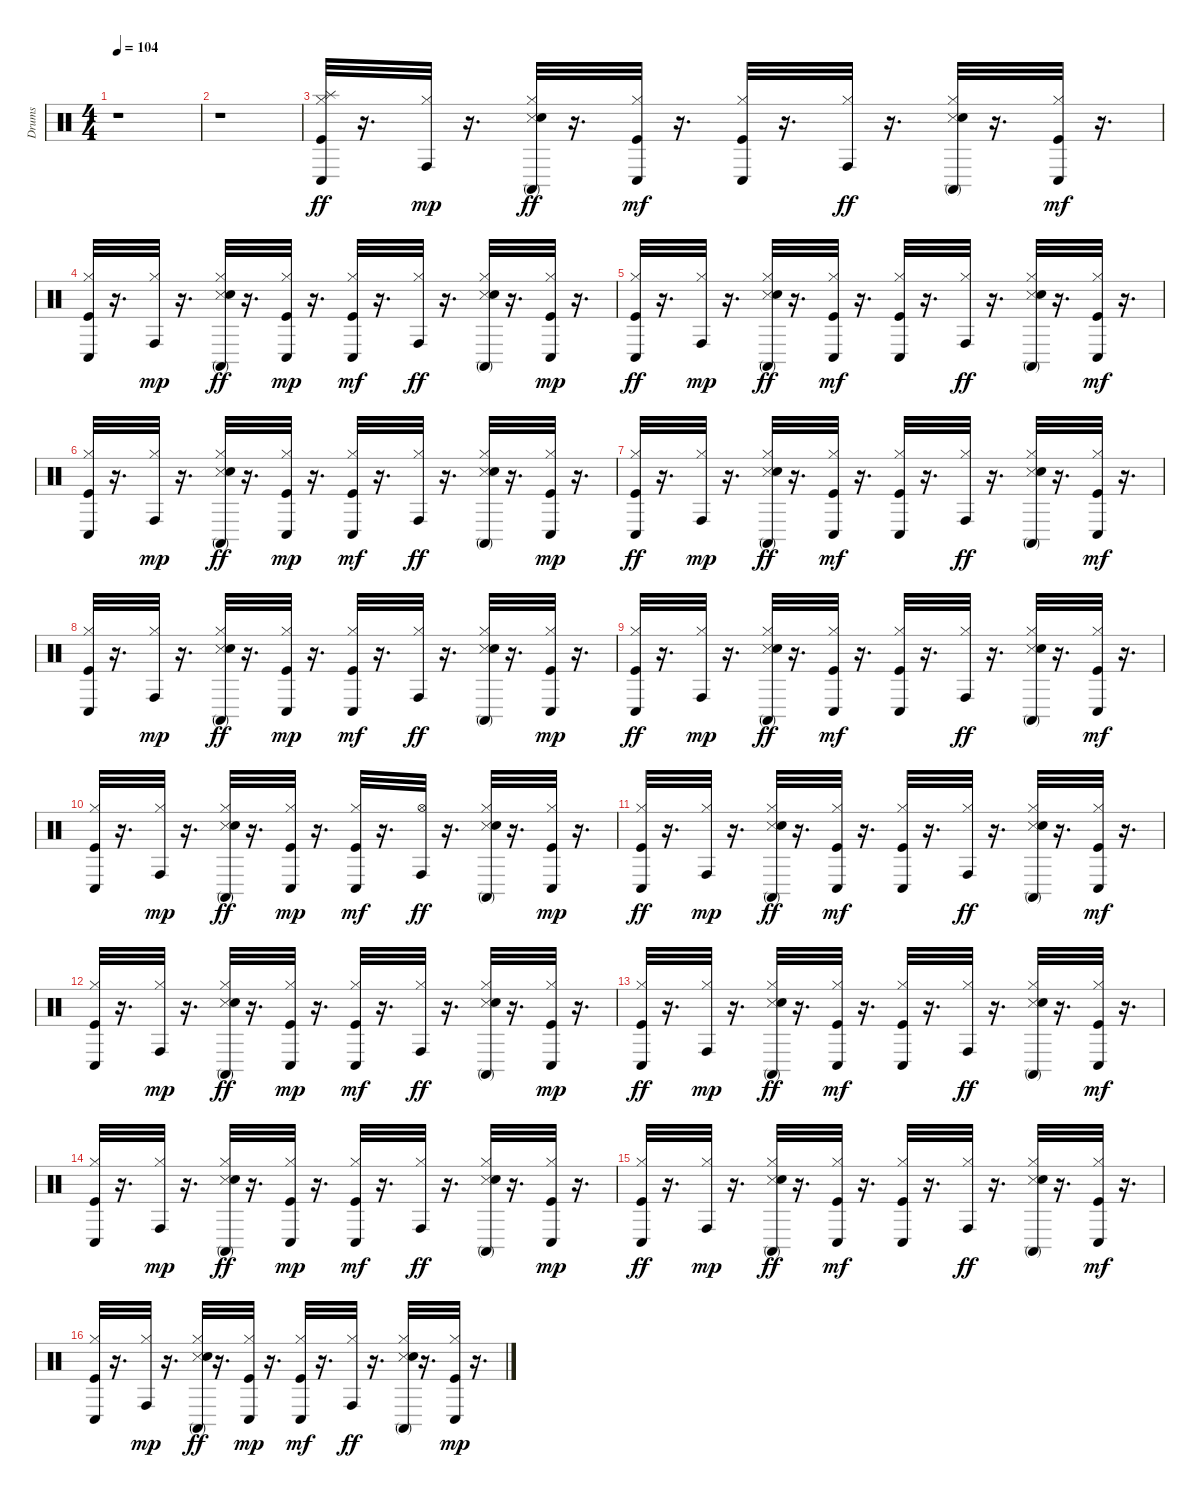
\track ("Drums" "Drums") {instrument percussion}
\staff {score}
\articulation defaults
\ts (4 4)
\tempo 104
\clef neutral
\ks c
r.1{dy ff} |
r.1 |
("Splash (hit)" "Kick (hit)" "Hi-Hat (closed)" "Conga low (hit)").32 r.16{d} ("Hi-Hat (closed)" "Conga high (hit)").32{dy mp} r.16{d} ("Snare (side stick) 3" "Hi-Hat (closed)" "Conga high (mute)" "Snare (hit) 2").32{dy ff} r.16{d} ("Kick (hit)" "Hi-Hat (closed)" "Conga low (hit)").32{dy mf} r.16{d} ("Kick (hit)" "Hi-Hat (closed)" "Conga low (hit)").32 r.16{d} ("Hi-Hat (closed)" "Conga high (hit)").32{dy ff} r.16{d} ("Snare (side stick) 3" "Hi-Hat (closed)" "Conga high (mute)" "Snare (hit) 2").32 r.16{d} ("Kick (hit)" "Hi-Hat (closed)" "Conga low (hit)").32{dy mf} r.16{d} |
("Kick (hit)" "Hi-Hat (closed)" "Conga low (hit)").32 r.16{d} ("Hi-Hat (closed)" "Conga high (hit)").32{dy mp} r.16{d} ("Snare (side stick) 3" "Hi-Hat (closed)" "Conga high (mute)" "Snare (hit) 2").32{dy ff} r.16{d} ("Kick (hit)" "Hi-Hat (closed)" "Conga low (hit)").32{dy mp} r.16{d} ("Kick (hit)" "Hi-Hat (closed)" "Conga low (hit)").32{dy mf} r.16{d} ("Hi-Hat (closed)" "Conga high (hit)").32{dy ff} r.16{d} ("Snare (side stick) 3" "Hi-Hat (closed)" "Conga high (mute)" "Snare (hit) 2").32 r.16{d} ("Kick (hit)" "Hi-Hat (closed)" "Conga low (hit)").32{dy mp} r.16{d} |
("Kick (hit)" "Hi-Hat (closed)" "Conga low (hit)").32{dy ff} r.16{d} ("Hi-Hat (closed)" "Conga high (hit)").32{dy mp} r.16{d} ("Snare (side stick) 3" "Hi-Hat (closed)" "Conga high (mute)" "Snare (hit) 2").32{dy ff} r.16{d} ("Kick (hit)" "Hi-Hat (closed)" "Conga low (hit)").32{dy mf} r.16{d} ("Kick (hit)" "Hi-Hat (closed)" "Conga low (hit)").32 r.16{d} ("Hi-Hat (closed)" "Conga high (hit)").32{dy ff} r.16{d} ("Snare (side stick) 3" "Hi-Hat (closed)" "Conga high (mute)" "Snare (hit) 2").32 r.16{d} ("Kick (hit)" "Hi-Hat (closed)" "Conga low (hit)").32{dy mf} r.16{d} |
("Kick (hit)" "Hi-Hat (closed)" "Conga low (hit)").32 r.16{d} ("Hi-Hat (closed)" "Conga high (hit)").32{dy mp} r.16{d} ("Snare (side stick) 3" "Hi-Hat (closed)" "Conga high (mute)" "Snare (hit) 2").32{dy ff} r.16{d} ("Kick (hit)" "Hi-Hat (closed)" "Conga low (hit)").32{dy mp} r.16{d} ("Kick (hit)" "Hi-Hat (closed)" "Conga low (hit)").32{dy mf} r.16{d} ("Hi-Hat (closed)" "Conga high (hit)").32{dy ff} r.16{d} ("Snare (side stick) 3" "Hi-Hat (closed)" "Conga high (mute)" "Snare (hit) 2").32 r.16{d} ("Kick (hit)" "Hi-Hat (closed)" "Conga low (hit)").32{dy mp} r.16{d} |
("Kick (hit)" "Hi-Hat (closed)" "Conga low (hit)").32{dy ff} r.16{d} ("Hi-Hat (closed)" "Conga high (hit)").32{dy mp} r.16{d} ("Snare (side stick) 3" "Hi-Hat (closed)" "Conga high (mute)" "Snare (hit) 2").32{dy ff} r.16{d} ("Kick (hit)" "Hi-Hat (closed)" "Conga low (hit)").32{dy mf} r.16{d} ("Kick (hit)" "Hi-Hat (closed)" "Conga low (hit)").32 r.16{d} ("Hi-Hat (closed)" "Conga high (hit)").32{dy ff} r.16{d} ("Snare (side stick) 3" "Hi-Hat (closed)" "Conga high (mute)" "Snare (hit) 2").32 r.16{d} ("Kick (hit)" "Hi-Hat (closed)" "Conga low (hit)").32{dy mf} r.16{d} |
("Kick (hit)" "Hi-Hat (closed)" "Conga low (hit)").32 r.16{d} ("Hi-Hat (closed)" "Conga high (hit)").32{dy mp} r.16{d} ("Snare (side stick) 3" "Hi-Hat (closed)" "Conga high (mute)" "Snare (hit) 2").32{dy ff} r.16{d} ("Kick (hit)" "Hi-Hat (closed)" "Conga low (hit)").32{dy mp} r.16{d} ("Kick (hit)" "Hi-Hat (closed)" "Conga low (hit)").32{dy mf} r.16{d} ("Hi-Hat (closed)" "Conga high (hit)").32{dy ff} r.16{d} ("Snare (side stick) 3" "Hi-Hat (closed)" "Conga high (mute)" "Snare (hit) 2").32 r.16{d} ("Kick (hit)" "Hi-Hat (closed)" "Conga low (hit)").32{dy mp} r.16{d} |
("Kick (hit)" "Hi-Hat (closed)" "Conga low (hit)").32{dy ff} r.16{d} ("Hi-Hat (closed)" "Conga high (hit)").32{dy mp} r.16{d} ("Snare (side stick) 3" "Hi-Hat (closed)" "Conga high (mute)" "Snare (hit) 2").32{dy ff} r.16{d} ("Kick (hit)" "Hi-Hat (closed)" "Conga low (hit)").32{dy mf} r.16{d} ("Kick (hit)" "Hi-Hat (closed)" "Conga low (hit)").32 r.16{d} ("Hi-Hat (closed)" "Conga high (hit)").32{dy ff} r.16{d} ("Snare (side stick) 3" "Hi-Hat (closed)" "Conga high (mute)" "Snare (hit) 2").32 r.16{d} ("Kick (hit)" "Hi-Hat (closed)" "Conga low (hit)").32{dy mf} r.16{d} |
("Kick (hit)" "Hi-Hat (closed)" "Conga low (hit)").32 r.16{d} ("Hi-Hat (closed)" "Conga high (hit)").32{dy mp} r.16{d} ("Snare (side stick) 3" "Hi-Hat (closed)" "Conga high (mute)" "Snare (hit) 2").32{dy ff} r.16{d} ("Kick (hit)" "Hi-Hat (closed)" "Conga low (hit)").32{dy mp} r.16{d} ("Kick (hit)" "Hi-Hat (closed)" "Conga low (hit)").32{dy mf} r.16{d} ("Hi-Hat (open)" "Conga high (hit)").32{dy ff} r.16{d} ("Snare (side stick) 3" "Hi-Hat (closed)" "Conga high (mute)" "Snare (hit) 2").32 r.16{d} ("Kick (hit)" "Hi-Hat (closed)" "Conga low (hit)").32{dy mp} r.16{d} |
("Kick (hit)" "Hi-Hat (closed)" "Conga low (hit)").32{dy ff} r.16{d} ("Hi-Hat (closed)" "Conga high (hit)").32{dy mp} r.16{d} ("Snare (side stick) 3" "Hi-Hat (closed)" "Conga high (mute)" "Snare (hit) 2").32{dy ff} r.16{d} ("Kick (hit)" "Hi-Hat (closed)" "Conga low (hit)").32{dy mf} r.16{d} ("Kick (hit)" "Hi-Hat (closed)" "Conga low (hit)").32 r.16{d} ("Hi-Hat (closed)" "Conga high (hit)").32{dy ff} r.16{d} ("Snare (side stick) 3" "Hi-Hat (closed)" "Conga high (mute)" "Snare (hit) 2").32 r.16{d} ("Kick (hit)" "Hi-Hat (closed)" "Conga low (hit)").32{dy mf} r.16{d} |
("Kick (hit)" "Hi-Hat (closed)" "Conga low (hit)").32 r.16{d} ("Hi-Hat (closed)" "Conga high (hit)").32{dy mp} r.16{d} ("Snare (side stick) 3" "Hi-Hat (closed)" "Conga high (mute)" "Snare (hit) 2").32{dy ff} r.16{d} ("Kick (hit)" "Hi-Hat (closed)" "Conga low (hit)").32{dy mp} r.16{d} ("Kick (hit)" "Hi-Hat (closed)" "Conga low (hit)").32{dy mf} r.16{d} ("Hi-Hat (closed)" "Conga high (hit)").32{dy ff} r.16{d} ("Snare (side stick) 3" "Hi-Hat (closed)" "Conga high (mute)" "Snare (hit) 2").32 r.16{d} ("Kick (hit)" "Hi-Hat (closed)" "Conga low (hit)").32{dy mp} r.16{d} |
("Kick (hit)" "Hi-Hat (closed)" "Conga low (hit)").32{dy ff} r.16{d} ("Hi-Hat (closed)" "Conga high (hit)").32{dy mp} r.16{d} ("Snare (side stick) 3" "Hi-Hat (closed)" "Conga high (mute)" "Snare (hit) 2").32{dy ff} r.16{d} ("Kick (hit)" "Hi-Hat (closed)" "Conga low (hit)").32{dy mf} r.16{d} ("Kick (hit)" "Hi-Hat (closed)" "Conga low (hit)").32 r.16{d} ("Hi-Hat (closed)" "Conga high (hit)").32{dy ff} r.16{d} ("Snare (side stick) 3" "Hi-Hat (closed)" "Conga high (mute)" "Snare (hit) 2").32 r.16{d} ("Kick (hit)" "Hi-Hat (closed)" "Conga low (hit)").32{dy mf} r.16{d} |
("Kick (hit)" "Hi-Hat (closed)" "Conga low (hit)").32 r.16{d} ("Hi-Hat (closed)" "Conga high (hit)").32{dy mp} r.16{d} ("Snare (side stick) 3" "Hi-Hat (closed)" "Conga high (mute)" "Snare (hit) 2").32{dy ff} r.16{d} ("Kick (hit)" "Hi-Hat (closed)" "Conga low (hit)").32{dy mp} r.16{d} ("Kick (hit)" "Hi-Hat (closed)" "Conga low (hit)").32{dy mf} r.16{d} ("Hi-Hat (closed)" "Conga high (hit)").32{dy ff} r.16{d} ("Snare (side stick) 3" "Hi-Hat (closed)" "Conga high (mute)" "Snare (hit) 2").32 r.16{d} ("Kick (hit)" "Hi-Hat (closed)" "Conga low (hit)").32{dy mp} r.16{d} |
("Kick (hit)" "Hi-Hat (closed)" "Conga low (hit)").32{dy ff} r.16{d} ("Hi-Hat (closed)" "Conga high (hit)").32{dy mp} r.16{d} ("Snare (side stick) 3" "Hi-Hat (closed)" "Conga high (mute)" "Snare (hit) 2").32{dy ff} r.16{d} ("Kick (hit)" "Hi-Hat (closed)" "Conga low (hit)").32{dy mf} r.16{d} ("Kick (hit)" "Hi-Hat (closed)" "Conga low (hit)").32 r.16{d} ("Hi-Hat (closed)" "Conga high (hit)").32{dy ff} r.16{d} ("Snare (side stick) 3" "Hi-Hat (closed)" "Conga high (mute)" "Snare (hit) 2").32 r.16{d} ("Kick (hit)" "Hi-Hat (closed)" "Conga low (hit)").32{dy mf} r.16{d} |
("Kick (hit)" "Hi-Hat (closed)" "Conga low (hit)").32 r.16{d} ("Hi-Hat (closed)" "Conga high (hit)").32{dy mp} r.16{d} ("Snare (side stick) 3" "Hi-Hat (closed)" "Conga high (mute)" "Snare (hit) 2").32{dy ff} r.16{d} ("Kick (hit)" "Hi-Hat (closed)" "Conga low (hit)").32{dy mp} r.16{d} ("Kick (hit)" "Hi-Hat (closed)" "Conga low (hit)").32{dy mf} r.16{d} ("Hi-Hat (closed)" "Conga high (hit)").32{dy ff} r.16{d} ("Snare (side stick) 3" "Hi-Hat (closed)" "Conga high (mute)" "Snare (hit) 2").32 r.16{d} ("Kick (hit)" "Hi-Hat (closed)" "Conga low (hit)").32{dy mp} r.16{d}
